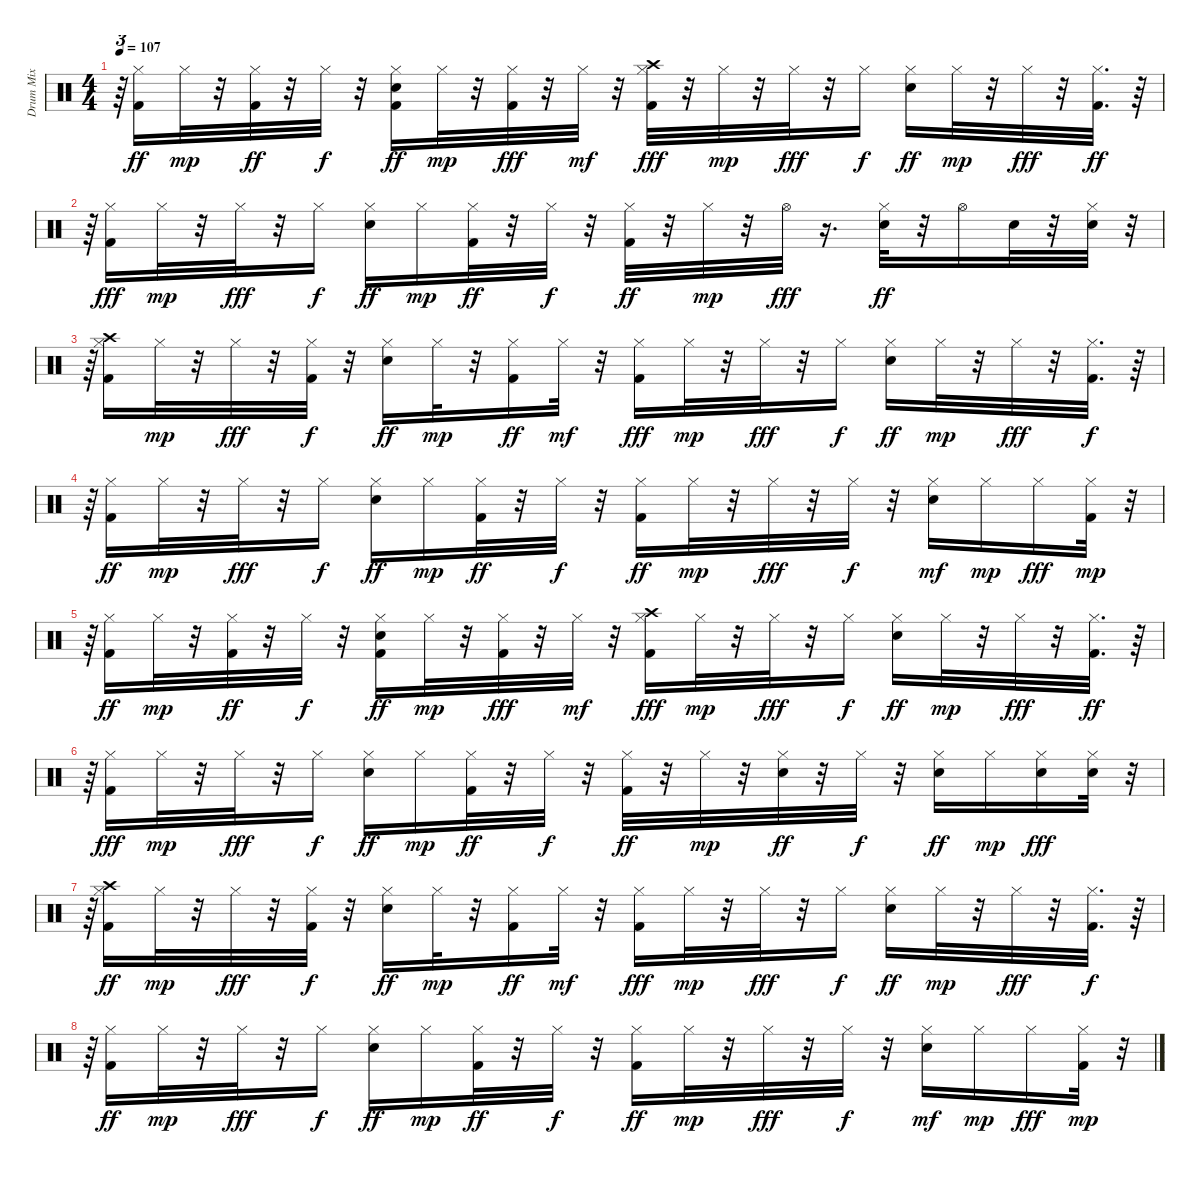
\track ("Drum Mix" "Drum Mix") {instrument percussion}
\staff {score}
\articulation defaults
\ts (4 4)
\tempo 107
\clef neutral
\ks c
r.64{tu (3 2) dy mp} ("Hi-Hat (closed)" "Kick (hit) 2").16{dy ff} "Hi-Hat (closed)".32{dy mp} r.32 ("Hi-Hat (closed)" "Kick (hit) 2").32{dy ff} r.32 "Hi-Hat (closed)".32{dy f} r.32 ("Hi-Hat (closed)" "Snare (hit) 2" "Kick (hit) 2").16{dy ff} "Hi-Hat (closed)".32{dy mp} r.32 ("Hi-Hat (closed)" "Kick (hit) 2").32{dy fff} r.32 "Hi-Hat (closed)".32{dy mf} r.32 ("Hi-Hat (closed)" "Crash high (hit)" "Kick (hit) 2").32{dy fff} r.32 "Hi-Hat (closed)".32{dy mp} r.32 "Hi-Hat (closed)".32{dy fff} r.32 "Hi-Hat (closed)".16{dy f} ("Hi-Hat (closed)" "Snare (hit) 2").16{dy ff} "Hi-Hat (closed)".32{dy mp} r.32 "Hi-Hat (closed)".32{dy fff} r.32 ("Hi-Hat (closed)" "Kick (hit) 2").32{d dy ff} r.64 |
r.64{tu (3 2)} ("Hi-Hat (closed)" "Kick (hit) 2").16{dy fff} "Hi-Hat (closed)".32{dy mp} r.32 "Hi-Hat (closed)".32{dy fff} r.32 "Hi-Hat (closed)".16{dy f} ("Hi-Hat (closed)" "Snare (hit) 2").16{dy ff} "Hi-Hat (closed)".16{dy mp} ("Hi-Hat (closed)" "Kick (hit) 2").32{dy ff} r.32 "Hi-Hat (closed)".32{dy f} r.32 ("Hi-Hat (closed)" "Kick (hit) 2").32{dy ff} r.32 "Hi-Hat (closed)".32{dy mp} r.32 "Hi-Hat (open)".32{dy fff} r.16{d} ("Hi-Hat (closed)" "Snare (hit) 2").32{dy ff} r.32 "Hi-Hat (open)".16 "Snare (hit) 2".32 r.32 ("Hi-Hat (closed)" "Snare (hit) 2").32 r.32{tu (3 2)} |
r.64{tu (3 2)} ("Hi-Hat (closed)" "Crash high (hit)" "Kick (hit) 2").16 "Hi-Hat (closed)".32{dy mp} r.32 "Hi-Hat (closed)".32{dy fff} r.32 ("Hi-Hat (closed)" "Kick (hit) 2").32{dy f} r.32 ("Hi-Hat (closed)" "Snare (hit) 2").16{dy ff} "Hi-Hat (closed)".32{dy mp} r.32 ("Hi-Hat (closed)" "Kick (hit) 2").16{dy ff} "Hi-Hat (closed)".32{dy mf} r.32 ("Hi-Hat (closed)" "Kick (hit) 2").16{dy fff} "Hi-Hat (closed)".32{dy mp} r.32 "Hi-Hat (closed)".32{dy fff} r.32 "Hi-Hat (closed)".16{dy f} ("Hi-Hat (closed)" "Snare (hit) 2").16{dy ff} "Hi-Hat (closed)".32{dy mp} r.32 "Hi-Hat (closed)".32{dy fff} r.32 ("Hi-Hat (closed)" "Kick (hit) 2").32{d dy f} r.64 |
r.64{tu (3 2)} ("Hi-Hat (closed)" "Kick (hit) 2").16{dy ff} "Hi-Hat (closed)".32{dy mp} r.32 "Hi-Hat (closed)".32{dy fff} r.32 "Hi-Hat (closed)".16{dy f} ("Hi-Hat (closed)" "Snare (hit) 2").16{dy ff} "Hi-Hat (closed)".16{dy mp} ("Hi-Hat (closed)" "Kick (hit) 2").32{dy ff} r.32 "Hi-Hat (closed)".32{dy f} r.32 ("Hi-Hat (closed)" "Kick (hit) 2").16{dy ff} "Hi-Hat (closed)".32{dy mp} r.32 "Hi-Hat (closed)".32{dy fff} r.32 "Hi-Hat (closed)".32{dy f} r.32 ("Hi-Hat (closed)" "Snare (hit) 2").16{dy mf} "Hi-Hat (closed)".16{dy mp} "Hi-Hat (closed)".16{dy fff} ("Hi-Hat (closed)" "Kick (hit) 2").32{dy mp} r.32{tu (3 2)} |
r.64{tu (3 2)} ("Hi-Hat (closed)" "Kick (hit) 2").16{dy ff} "Hi-Hat (closed)".32{dy mp} r.32 ("Hi-Hat (closed)" "Kick (hit) 2").32{dy ff} r.32 "Hi-Hat (closed)".32{dy f} r.32 ("Hi-Hat (closed)" "Snare (hit) 2" "Kick (hit) 2").16{dy ff} "Hi-Hat (closed)".32{dy mp} r.32 ("Hi-Hat (closed)" "Kick (hit) 2").32{dy fff} r.32 "Hi-Hat (closed)".32{dy mf} r.32 ("Hi-Hat (closed)" "Kick (hit) 2" "Crash high (hit)").16{dy fff} "Hi-Hat (closed)".32{dy mp} r.32 "Hi-Hat (closed)".32{dy fff} r.32 "Hi-Hat (closed)".16{dy f} ("Hi-Hat (closed)" "Snare (hit) 2").16{dy ff} "Hi-Hat (closed)".32{dy mp} r.32 "Hi-Hat (closed)".32{dy fff} r.32 ("Hi-Hat (closed)" "Kick (hit) 2").32{d dy ff} r.64 |
r.64{tu (3 2)} ("Hi-Hat (closed)" "Kick (hit) 2").16{dy fff} "Hi-Hat (closed)".32{dy mp} r.32 "Hi-Hat (closed)".32{dy fff} r.32 "Hi-Hat (closed)".16{dy f} ("Hi-Hat (closed)" "Snare (hit) 2").16{dy ff} "Hi-Hat (closed)".16{dy mp} ("Hi-Hat (closed)" "Kick (hit) 2").32{dy ff} r.32 "Hi-Hat (closed)".32{dy f} r.32 ("Hi-Hat (closed)" "Kick (hit) 2").32{dy ff} r.32 "Hi-Hat (closed)".32{dy mp} r.32 ("Hi-Hat (closed)" "Snare (hit) 2").32{dy ff} r.32 "Hi-Hat (closed)".32{dy f} r.32 ("Hi-Hat (closed)" "Snare (hit) 2").16{dy ff} "Hi-Hat (closed)".16{dy mp} ("Hi-Hat (closed)" "Snare (hit) 2").16{dy fff} ("Hi-Hat (closed)" "Snare (hit) 2").32 r.32{tu (3 2)} |
r.64{tu (3 2)} ("Hi-Hat (closed)" "Crash high (hit)" "Kick (hit) 2").16{dy ff} "Hi-Hat (closed)".32{dy mp} r.32 "Hi-Hat (closed)".32{dy fff} r.32 ("Hi-Hat (closed)" "Kick (hit) 2").32{dy f} r.32 ("Hi-Hat (closed)" "Snare (hit) 2").16{dy ff} "Hi-Hat (closed)".32{dy mp} r.32 ("Hi-Hat (closed)" "Kick (hit) 2").16{dy ff} "Hi-Hat (closed)".32{dy mf} r.32 ("Hi-Hat (closed)" "Kick (hit) 2").16{dy fff} "Hi-Hat (closed)".32{dy mp} r.32 "Hi-Hat (closed)".32{dy fff} r.32 "Hi-Hat (closed)".16{dy f} ("Hi-Hat (closed)" "Snare (hit) 2").16{dy ff} "Hi-Hat (closed)".32{dy mp} r.32 "Hi-Hat (closed)".32{dy fff} r.32 ("Hi-Hat (closed)" "Kick (hit) 2").32{d dy f} r.64 |
r.64{tu (3 2)} ("Hi-Hat (closed)" "Kick (hit) 2").16{dy ff} "Hi-Hat (closed)".32{dy mp} r.32 "Hi-Hat (closed)".32{dy fff} r.32 "Hi-Hat (closed)".16{dy f} ("Hi-Hat (closed)" "Snare (hit) 2").16{dy ff} "Hi-Hat (closed)".16{dy mp} ("Hi-Hat (closed)" "Kick (hit) 2").32{dy ff} r.32 "Hi-Hat (closed)".32{dy f} r.32 ("Hi-Hat (closed)" "Kick (hit) 2").16{dy ff} "Hi-Hat (closed)".32{dy mp} r.32 "Hi-Hat (closed)".32{dy fff} r.32 "Hi-Hat (closed)".32{dy f} r.32 ("Hi-Hat (closed)" "Snare (hit) 2").16{dy mf} "Hi-Hat (closed)".16{dy mp} "Hi-Hat (closed)".16{dy fff} ("Hi-Hat (closed)" "Kick (hit) 2").32{dy mp} r.32{tu (3 2)}
